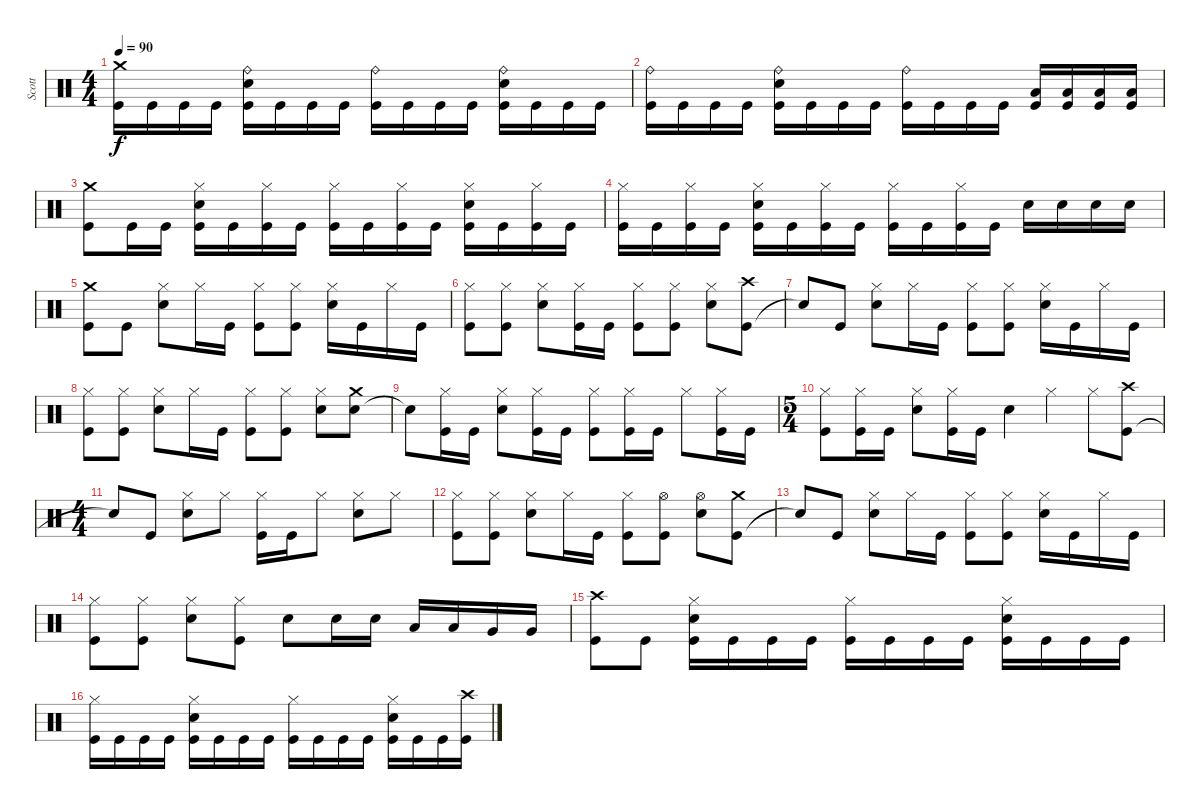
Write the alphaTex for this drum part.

\track ("Scott" "Scott") {instrument percussion}
\staff {score}
\articulation defaults
\ts (4 4)
\tempo 90
\clef neutral
\ks c
("Kick (hit)" "Crash medium (hit)").16{dy f} "Kick (hit)".16 "Kick (hit)".16 "Kick (hit)".16 ("Kick (hit)" "Snare (hit) 2" "Ride (bell)").16 "Kick (hit)".16 "Kick (hit)".16 "Kick (hit)".16 ("Kick (hit)" "Ride (bell)").16 "Kick (hit)".16 "Kick (hit)".16 "Kick (hit)".16 ("Kick (hit)" "Snare (hit) 2" "Ride (bell)").16 "Kick (hit)".16 "Kick (hit)".16 "Kick (hit)".16 |
("Kick (hit)" "Ride (bell)").16 "Kick (hit)".16 "Kick (hit)".16 "Kick (hit)".16 ("Kick (hit)" "Snare (hit) 2" "Ride (bell)").16 "Kick (hit)".16 "Kick (hit)".16 "Kick (hit)".16 ("Kick (hit)" "Ride (bell)").16 "Kick (hit)".16 "Kick (hit)".16 "Kick (hit)".16 ("Kick (hit)" "Low Floor Tom (hit)").16 ("Kick (hit)" "Low Floor Tom (hit)").16 ("Kick (hit)" "Low Floor Tom (hit)").16 ("Kick (hit)" "Low Floor Tom (hit)").16 |
("Kick (hit)" "Crash medium (hit)").8 "Kick (hit)".16 "Kick (hit)".16 ("Kick (hit)" "Snare (hit) 2" "Hi-Hat (closed)").16 "Kick (hit)".16 ("Kick (hit)" "Hi-Hat (closed)").16 "Kick (hit)".16 ("Kick (hit)" "Hi-Hat (closed)").16 "Kick (hit)".16 ("Kick (hit)" "Hi-Hat (closed)").16 "Kick (hit)".16 ("Kick (hit)" "Snare (hit) 2" "Hi-Hat (closed)").16 "Kick (hit)".16 ("Kick (hit)" "Hi-Hat (closed)").16 "Kick (hit)".16 |
("Kick (hit)" "Hi-Hat (closed)").16 "Kick (hit)".16 ("Kick (hit)" "Hi-Hat (closed)").16 "Kick (hit)".16 ("Kick (hit)" "Snare (hit) 2" "Hi-Hat (closed)").16 "Kick (hit)".16 ("Kick (hit)" "Hi-Hat (closed)").16 "Kick (hit)".16 ("Kick (hit)" "Hi-Hat (closed)").16 "Kick (hit)".16 ("Kick (hit)" "Hi-Hat (closed)").16 "Kick (hit)".16 "Snare (hit) 2".16 "Snare (hit) 2".16 "Snare (hit) 2".16 "Snare (hit) 2".16 |
("Kick (hit)" "Crash medium (hit)").8 "Kick (hit)".8 ("Snare (hit) 2" "Hi-Hat (closed)").8 "Hi-Hat (closed)".16 "Kick (hit)".16 ("Kick (hit)" "Hi-Hat (closed)").8 ("Kick (hit)" "Hi-Hat (closed)").8 ("Snare (hit) 2" "Hi-Hat (closed)").16 "Kick (hit)".16 "Hi-Hat (closed)".16 "Kick (hit)".16 |
("Kick (hit)" "Hi-Hat (closed)").8 ("Kick (hit)" "Hi-Hat (closed)").8 ("Snare (hit) 2" "Hi-Hat (closed)").8 ("Kick (hit)" "Hi-Hat (closed)").16 "Kick (hit)".16 ("Kick (hit)" "Hi-Hat (closed)").8 ("Kick (hit)" "Hi-Hat (closed)").8 ("Snare (hit) 2" "Hi-Hat (closed)").8 ("Kick (hit)" "Crash high (hit)").8 |
"Snare (hit)"{t}.8 "Kick (hit)".8 ("Snare (hit) 2" "Hi-Hat (closed)").8 "Hi-Hat (closed)".16 "Kick (hit)".16 ("Kick (hit)" "Hi-Hat (closed)").8 ("Kick (hit)" "Hi-Hat (closed)").8 ("Snare (hit) 2" "Hi-Hat (closed)").16 "Kick (hit)".16 "Hi-Hat (closed)".16 "Kick (hit)".16 |
("Kick (hit)" "Hi-Hat (closed)").8 ("Kick (hit)" "Hi-Hat (closed)").8 ("Snare (hit) 2" "Hi-Hat (closed)").8 "Hi-Hat (closed)".16 "Kick (hit)".16 ("Kick (hit)" "Hi-Hat (closed)").8 ("Kick (hit)" "Hi-Hat (closed)").8 ("Snare (hit) 2" "Hi-Hat (closed)").8 ("Snare (hit) 2" "Crash medium (hit)").8 |
"Snare (hit)"{t}.8 ("Kick (hit)" "Hi-Hat (closed)").16 "Kick (hit)".16 ("Snare (hit) 2" "Hi-Hat (closed)").8 ("Kick (hit)" "Hi-Hat (closed)").16 "Kick (hit)".16 ("Kick (hit)" "Hi-Hat (closed)").8 ("Kick (hit)" "Hi-Hat (closed)").16 "Kick (hit)".16 "Hi-Hat (closed)".8 ("Kick (hit)" "Hi-Hat (closed)").16 "Kick (hit)".16 |
\ts (5 4)
("Kick (hit)" "Hi-Hat (closed)").8 ("Kick (hit)" "Hi-Hat (closed)").16 "Kick (hit)".16 ("Snare (hit) 2" "Hi-Hat (closed)").8 ("Kick (hit)" "Hi-Hat (closed)").16 "Kick (hit)".16 "Snare (hit) 2".4 "Hi-Hat (closed)".4 "Hi-Hat (closed)".8 ("Kick (hit)" "Crash high (hit)").8 |
\ts (4 4)
"Snare (hit)"{t}.8 "Kick (hit)".8 ("Snare (hit) 2" "Hi-Hat (closed)").8 "Hi-Hat (closed)".8 ("Kick (hit)" "Hi-Hat (closed)").16 "Kick (hit)".16 "Hi-Hat (closed)".8 ("Snare (hit) 2" "Hi-Hat (closed)").8 "Hi-Hat (closed)".8 |
("Kick (hit)" "Hi-Hat (closed)").8 ("Kick (hit)" "Hi-Hat (closed)").8 ("Snare (hit) 2" "Hi-Hat (closed)").8 "Hi-Hat (closed)".16 "Kick (hit)".16 ("Kick (hit)" "Hi-Hat (closed)").8 ("Kick (hit)" "Hi-Hat (open)").8 ("Snare (hit) 2" "Hi-Hat (open)").8 ("Kick (hit)" "Crash medium (hit)").8 |
"Snare (hit)"{t}.8 "Kick (hit)".8 ("Snare (hit) 2" "Hi-Hat (closed)").8 "Hi-Hat (closed)".16 "Kick (hit)".16 ("Kick (hit)" "Hi-Hat (closed)").8 ("Kick (hit)" "Hi-Hat (closed)").8 ("Snare (hit) 2" "Hi-Hat (closed)").16 "Kick (hit)".16 "Hi-Hat (closed)".16 "Kick (hit)".16 |
("Kick (hit)" "Hi-Hat (closed)").8 ("Kick (hit)" "Hi-Hat (closed)").8 ("Snare (hit) 2" "Hi-Hat (closed)").8 ("Kick (hit)" "Hi-Hat (closed)").8 "Snare (hit) 2".8 "Snare (hit) 2".16 "Snare (hit) 2".16 "Low Tom (hit)".16 "Low Tom (hit)".16 "Very Low Tom (hit)".16 "Very Low Tom (hit)".16 |
("Kick (hit)" "Crash high (hit)").8 "Kick (hit)".8 ("Kick (hit)" "Snare (hit) 2" "Hi-Hat (closed)").16 "Kick (hit)".16 "Kick (hit)".16 "Kick (hit)".16 ("Kick (hit)" "Hi-Hat (closed)").16 "Kick (hit)".16 "Kick (hit)".16 "Kick (hit)".16 ("Kick (hit)" "Snare (hit) 2" "Hi-Hat (closed)").16 "Kick (hit)".16 "Kick (hit)".16 "Kick (hit)".16 |
("Kick (hit)" "Hi-Hat (closed)").16 "Kick (hit)".16 "Kick (hit)".16 "Kick (hit)".16 ("Kick (hit)" "Snare (hit) 2" "Hi-Hat (closed)").16 "Kick (hit)".16 "Kick (hit)".16 "Kick (hit)".16 ("Kick (hit)" "Hi-Hat (closed)").16 "Kick (hit)".16 "Kick (hit)".16 "Kick (hit)".16 ("Kick (hit)" "Snare (hit) 2" "Hi-Hat (closed)").16 "Kick (hit)".16 "Kick (hit)".16 ("Kick (hit)" "Crash high (hit)").16
